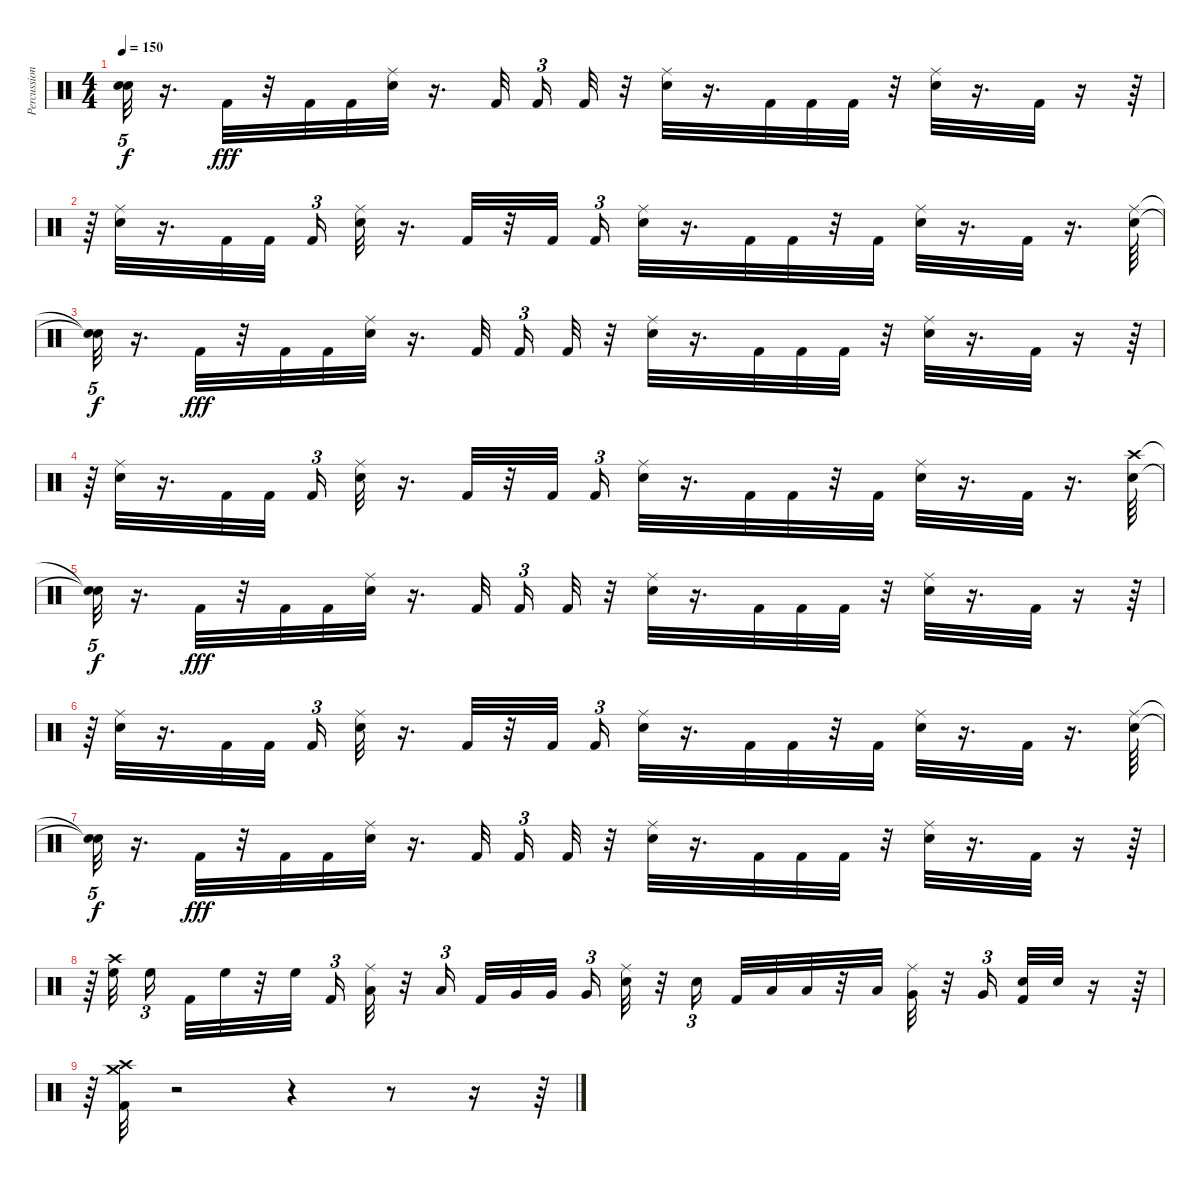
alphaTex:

\track ("Percussion" "Percussion") {instrument percussion}
\staff {score}
\articulation defaults
\ts (4 4)
\tempo 150
\clef neutral
\ks c
("Snare (hit)"{t} "Snare (hit)"{t}).32{tu (5 4) dy f} r.16{d} "Kick (hit) 2".32{dy fff} r.32 "Kick (hit) 2".32 "Kick (hit) 2".32 ("Snare (hit) 2" "Ride (middle)").32 r.16{d} "Kick (hit) 2".32{beam splitsecondary} "Kick (hit) 2".16{tu (3 2)} "Kick (hit) 2".32 r.32 ("Snare (hit) 2" "Ride (middle)").32 r.16{d} "Kick (hit) 2".32 "Kick (hit) 2".32 "Kick (hit) 2".32 r.32 ("Snare (hit) 2" "Ride (middle)").32 r.16{d} "Kick (hit) 2".32 r.16 r.64 |
r.64 ("Snare (hit) 2" "Ride (middle)").32 r.16{d} "Kick (hit) 2".32 "Kick (hit) 2".32{beam splitsecondary} "Kick (hit) 2".16{tu (3 2)} ("Snare (hit) 2" "Ride (middle)").32 r.16{d} "Kick (hit) 2".32 r.32 "Kick (hit) 2".32 "Kick (hit) 2".16{tu (3 2)} ("Snare (hit) 2" "Ride (middle)").32 r.16{d} "Kick (hit) 2".32 "Kick (hit) 2".32 r.32 "Kick (hit) 2".32 ("Snare (hit) 2" "Ride (middle)").32 r.16{d} "Kick (hit) 2".32 r.16{d} ("Snare (hit) 2" "Ride (middle)").64 |
("Snare (hit)"{t} "Snare (hit)"{t}).32{tu (5 4) dy f} r.16{d} "Kick (hit) 2".32{dy fff} r.32 "Kick (hit) 2".32 "Kick (hit) 2".32 ("Snare (hit) 2" "Ride (middle)").32 r.16{d} "Kick (hit) 2".32{beam splitsecondary} "Kick (hit) 2".16{tu (3 2)} "Kick (hit) 2".32 r.32 ("Ride (middle)" "Snare (hit) 2").32 r.16{d} "Kick (hit) 2".32 "Kick (hit) 2".32 "Kick (hit) 2".32 r.32 ("Snare (hit) 2" "Ride (middle)").32 r.16{d} "Kick (hit) 2".32 r.16 r.64 |
r.64 ("Snare (hit) 2" "Ride (middle)").32 r.16{d} "Kick (hit) 2".32 "Kick (hit) 2".32{beam splitsecondary} "Kick (hit) 2".16{tu (3 2)} ("Ride (middle)" "Snare (hit) 2").32 r.16{d} "Kick (hit) 2".32 r.32 "Kick (hit) 2".32 "Kick (hit) 2".16{tu (3 2)} ("Ride (middle)" "Snare (hit) 2").32 r.16{d} "Kick (hit) 2".32 "Kick (hit) 2".32 r.32 "Kick (hit) 2".32 ("Snare (hit) 2" "Ride (middle)").32 r.16{d} "Kick (hit) 2".32 r.16{d} ("Crash high (hit)" "Snare (hit) 2").64 |
("Snare (hit)"{t} "Snare (hit)"{t}).32{tu (5 4) dy f} r.16{d} "Kick (hit) 2".32{dy fff} r.32 "Kick (hit) 2".32 "Kick (hit) 2".32 ("Snare (hit) 2" "Ride (middle)").32 r.16{d} "Kick (hit) 2".32{beam splitsecondary} "Kick (hit) 2".16{tu (3 2)} "Kick (hit) 2".32 r.32 ("Snare (hit) 2" "Ride (middle)").32 r.16{d} "Kick (hit) 2".32 "Kick (hit) 2".32 "Kick (hit) 2".32 r.32 ("Snare (hit) 2" "Ride (middle)").32 r.16{d} "Kick (hit) 2".32 r.16 r.64 |
r.64 ("Snare (hit) 2" "Ride (middle)").32 r.16{d} "Kick (hit) 2".32 "Kick (hit) 2".32{beam splitsecondary} "Kick (hit) 2".16{tu (3 2)} ("Snare (hit) 2" "Ride (middle)").32 r.16{d} "Kick (hit) 2".32 r.32 "Kick (hit) 2".32 "Kick (hit) 2".16{tu (3 2)} ("Snare (hit) 2" "Ride (middle)").32 r.16{d} "Kick (hit) 2".32 "Kick (hit) 2".32 r.32 "Kick (hit) 2".32 ("Snare (hit) 2" "Ride (middle)").32 r.16{d} "Kick (hit) 2".32 r.16{d} ("Snare (hit) 2" "Ride (middle)").64 |
("Snare (hit)"{t} "Snare (hit)"{t}).32{tu (5 4) dy f} r.16{d} "Kick (hit) 2".32{dy fff} r.32 "Kick (hit) 2".32 "Kick (hit) 2".32 ("Snare (hit) 2" "Ride (middle)").32 r.16{d} "Kick (hit) 2".32{beam splitsecondary} "Kick (hit) 2".16{tu (3 2)} "Kick (hit) 2".32 r.32 ("Snare (hit) 2" "Ride (middle)").32 r.16{d} "Kick (hit) 2".32 "Kick (hit) 2".32 "Kick (hit) 2".32 r.32 ("Snare (hit) 2" "Ride (middle)").32 r.16{d} "Kick (hit) 2".32 r.16 r.64 |
r.64 ("High Floor Tom (hit)" "Crash high (hit)").32{beam splitsecondary} "High Floor Tom (hit)".16{tu (3 2) beam splitsecondary} "Kick (hit) 2".32 "High Floor Tom (hit)".32 r.32 "High Floor Tom (hit)".32 "Kick (hit) 2".16{tu (3 2)} ("Low Tom (hit)" "Ride (middle)").32 r.32 "Low Tom (hit)".16{tu (3 2) beam splitsecondary} "Kick (hit) 2".32 "Very Low Tom (hit)".32 "Very Low Tom (hit)".32{beam splitsecondary} "Very Low Tom (hit)".16{tu (3 2)} ("Ride (middle)" "Electric Snare (hit)").32 r.32 "Electric Snare (hit)".16{tu (3 2) beam splitsecondary} "Kick (hit) 2".32 "Low Tom (hit)".32 "Low Tom (hit)".32 r.32 "Low Tom (hit)".32 ("Very Low Tom (hit)" "Ride (middle)").32 r.32 "Very Low Tom (hit)".16{tu (3 2) beam splitsecondary} ("Kick (hit) 2" "Electric Snare (hit)").32 "Electric Snare (hit)".32 r.16 r.64 |
r.64 ("Crash high (hit)" "Kick (hit) 2" "Crash medium (hit)").32 r.2 r.4 r.8 r.16 r.64
